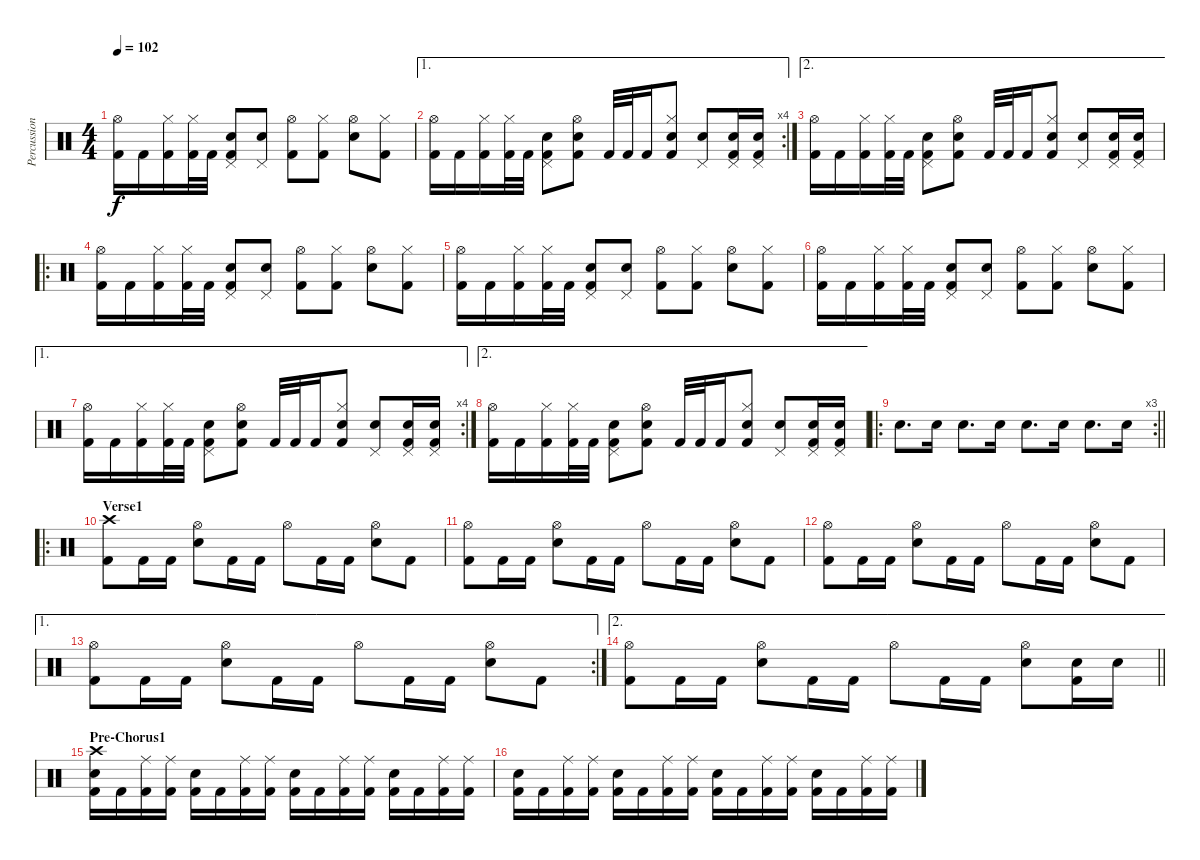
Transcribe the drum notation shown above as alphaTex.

\track ("Percussion" "Percussion") {instrument percussion}
\staff {score}
\articulation defaults
\ts (4 4)
\tempo 102
\clef neutral
\ks c
("Hi-Hat (open)" "Kick (hit) 2").16{dy f} "Kick (hit) 2".16 ("Hi-Hat (closed)" "Kick (hit) 2").16 ("Hi-Hat (closed)" "Kick (hit) 2").32 "Kick (hit) 2".32 ("Pedal Hi-Hat (hit)" "Snare (hit) 2" "Kick (hit) 2").8 ("Pedal Hi-Hat (hit)" "Snare (hit) 2").8 ("Hi-Hat (open)" "Kick (hit) 2").8 ("Hi-Hat (closed)" "Kick (hit) 2").8 ("Hi-Hat (open)" "Snare (hit) 2").8 ("Hi-Hat (closed)" "Kick (hit) 2").8 |
\ae 1
\rc 4
("Hi-Hat (open)" "Kick (hit) 2").16 "Kick (hit) 2".16 ("Hi-Hat (closed)" "Kick (hit) 2").16 ("Hi-Hat (closed)" "Kick (hit) 2").32 "Kick (hit) 2".32 ("Pedal Hi-Hat (hit)" "Snare (hit) 2" "Kick (hit) 2").8 ("Hi-Hat (open)" "Snare (hit) 2" "Kick (hit) 2").8 "Kick (hit) 2".32 "Kick (hit) 2".32 "Kick (hit) 2".16 ("Hi-Hat (closed)" "Snare (hit) 2" "Kick (hit) 2").8 ("Pedal Hi-Hat (hit)" "Snare (hit) 2").8 ("Pedal Hi-Hat (hit)" "Snare (hit) 2" "Kick (hit) 2").16 ("Pedal Hi-Hat (hit)" "Snare (hit) 2" "Kick (hit) 2").16 |
\ae 2
("Hi-Hat (open)" "Kick (hit) 2").16 "Kick (hit) 2".16 ("Hi-Hat (closed)" "Kick (hit) 2").16 ("Hi-Hat (closed)" "Kick (hit) 2").32 "Kick (hit) 2".32 ("Pedal Hi-Hat (hit)" "Snare (hit) 2" "Kick (hit) 2").8 ("Hi-Hat (open)" "Snare (hit) 2" "Kick (hit) 2").8 "Kick (hit) 2".32 "Kick (hit) 2".32 "Kick (hit) 2".16 ("Hi-Hat (closed)" "Snare (hit) 2" "Kick (hit) 2").8 ("Pedal Hi-Hat (hit)" "Snare (hit) 2").8 ("Pedal Hi-Hat (hit)" "Snare (hit) 2" "Kick (hit) 2").16 ("Pedal Hi-Hat (hit)" "Snare (hit) 2" "Kick (hit) 2").16 |
\ro
("Hi-Hat (open)" "Kick (hit) 2").16 "Kick (hit) 2".16 ("Hi-Hat (closed)" "Kick (hit) 2").16 ("Hi-Hat (closed)" "Kick (hit) 2").32 "Kick (hit) 2".32 ("Pedal Hi-Hat (hit)" "Snare (hit) 2" "Kick (hit) 2").8 ("Pedal Hi-Hat (hit)" "Snare (hit) 2").8 ("Hi-Hat (open)" "Kick (hit) 2").8 ("Hi-Hat (closed)" "Kick (hit) 2").8 ("Hi-Hat (open)" "Snare (hit) 2").8 ("Hi-Hat (closed)" "Kick (hit) 2").8 |
("Hi-Hat (open)" "Kick (hit) 2").16 "Kick (hit) 2".16 ("Hi-Hat (closed)" "Kick (hit) 2").16 ("Hi-Hat (closed)" "Kick (hit) 2").32 "Kick (hit) 2".32 ("Pedal Hi-Hat (hit)" "Snare (hit) 2" "Kick (hit) 2").8 ("Pedal Hi-Hat (hit)" "Snare (hit) 2").8 ("Hi-Hat (open)" "Kick (hit) 2").8 ("Hi-Hat (closed)" "Kick (hit) 2").8 ("Hi-Hat (open)" "Snare (hit) 2").8 ("Hi-Hat (closed)" "Kick (hit) 2").8 |
("Hi-Hat (open)" "Kick (hit) 2").16 "Kick (hit) 2".16 ("Hi-Hat (closed)" "Kick (hit) 2").16 ("Hi-Hat (closed)" "Kick (hit) 2").32 "Kick (hit) 2".32 ("Pedal Hi-Hat (hit)" "Snare (hit) 2" "Kick (hit) 2").8 ("Pedal Hi-Hat (hit)" "Snare (hit) 2").8 ("Hi-Hat (open)" "Kick (hit) 2").8 ("Hi-Hat (closed)" "Kick (hit) 2").8 ("Hi-Hat (open)" "Snare (hit) 2").8 ("Hi-Hat (closed)" "Kick (hit) 2").8 |
\ae 1
\rc 4
("Hi-Hat (open)" "Kick (hit) 2").16 "Kick (hit) 2".16 ("Hi-Hat (closed)" "Kick (hit) 2").16 ("Hi-Hat (closed)" "Kick (hit) 2").32 "Kick (hit) 2".32 ("Pedal Hi-Hat (hit)" "Snare (hit) 2" "Kick (hit) 2").8 ("Hi-Hat (open)" "Snare (hit) 2" "Kick (hit) 2").8 "Kick (hit) 2".32 "Kick (hit) 2".32 "Kick (hit) 2".16 ("Hi-Hat (closed)" "Snare (hit) 2" "Kick (hit) 2").8 ("Pedal Hi-Hat (hit)" "Snare (hit) 2").8 ("Pedal Hi-Hat (hit)" "Snare (hit) 2" "Kick (hit) 2").16 ("Pedal Hi-Hat (hit)" "Snare (hit) 2" "Kick (hit) 2").16 |
\ae 2
("Hi-Hat (open)" "Kick (hit) 2").16 "Kick (hit) 2".16 ("Hi-Hat (closed)" "Kick (hit) 2").16 ("Hi-Hat (closed)" "Kick (hit) 2").32 "Kick (hit) 2".32 ("Pedal Hi-Hat (hit)" "Snare (hit) 2" "Kick (hit) 2").8 ("Hi-Hat (open)" "Snare (hit) 2" "Kick (hit) 2").8 "Kick (hit) 2".32 "Kick (hit) 2".32 "Kick (hit) 2".16 ("Hi-Hat (closed)" "Snare (hit) 2" "Kick (hit) 2").8 ("Pedal Hi-Hat (hit)" "Snare (hit) 2").8 ("Pedal Hi-Hat (hit)" "Snare (hit) 2" "Kick (hit) 2").16 ("Pedal Hi-Hat (hit)" "Snare (hit) 2" "Kick (hit) 2").16 |
\ro
\rc 3
\barLineRight lightlight "Snare (hit) 2".8{d} "Snare (hit) 2".16 "Snare (hit) 2".8{d} "Snare (hit) 2".16 "Snare (hit) 2".8{d} "Snare (hit) 2".16 "Snare (hit) 2".8{d} "Snare (hit) 2".16
|
\ro
\section ("" "Verse1")
("Crash high (hit)" "Kick (hit) 2").8 "Kick (hit) 2".16 "Kick (hit) 2".16 ("Hi-Hat (open)" "Snare (hit) 2").8 "Kick (hit) 2".16 "Kick (hit) 2".16 "Hi-Hat (open)".8 "Kick (hit) 2".16 "Kick (hit) 2".16 ("Hi-Hat (open)" "Snare (hit) 2").8 "Kick (hit) 2".8 |
("Hi-Hat (open)" "Kick (hit) 2").8 "Kick (hit) 2".16 "Kick (hit) 2".16 ("Hi-Hat (open)" "Snare (hit) 2").8 "Kick (hit) 2".16 "Kick (hit) 2".16 "Hi-Hat (open)".8 "Kick (hit) 2".16 "Kick (hit) 2".16 ("Hi-Hat (open)" "Snare (hit) 2").8 "Kick (hit) 2".8 |
("Hi-Hat (open)" "Kick (hit) 2").8 "Kick (hit) 2".16 "Kick (hit) 2".16 ("Hi-Hat (open)" "Snare (hit) 2").8 "Kick (hit) 2".16 "Kick (hit) 2".16 "Hi-Hat (open)".8 "Kick (hit) 2".16 "Kick (hit) 2".16 ("Hi-Hat (open)" "Snare (hit) 2").8 "Kick (hit) 2".8 |
\ae 1
\rc 2
("Hi-Hat (open)" "Kick (hit) 2").8 "Kick (hit) 2".16 "Kick (hit) 2".16 ("Hi-Hat (open)" "Snare (hit) 2").8 "Kick (hit) 2".16 "Kick (hit) 2".16 "Hi-Hat (open)".8 "Kick (hit) 2".16 "Kick (hit) 2".16 ("Hi-Hat (open)" "Snare (hit) 2").8 "Kick (hit) 2".8 |
\ae 2
\barLineRight lightlight
("Hi-Hat (open)" "Kick (hit) 2").8 "Kick (hit) 2".16 "Kick (hit) 2".16 ("Hi-Hat (open)" "Snare (hit) 2").8 "Kick (hit) 2".16 "Kick (hit) 2".16 "Hi-Hat (open)".8 "Kick (hit) 2".16 "Kick (hit) 2".16 ("Hi-Hat (open)" "Snare (hit) 2").8 ("Snare (hit) 2" "Kick (hit) 2").16 "Snare (hit) 2".16 |
\section ("" "Pre-Chorus1")
("Crash high (hit)" "Snare (hit) 2" "Kick (hit) 2").16 "Kick (hit) 2".16 ("Ride (middle)" "Kick (hit) 2").16 ("Ride (middle)" "Kick (hit) 2").16 ("Snare (hit) 2" "Kick (hit) 2").16 "Kick (hit) 2".16 ("Ride (middle)" "Kick (hit) 2").16 ("Ride (middle)" "Kick (hit) 2").16 ("Snare (hit) 2" "Kick (hit) 2").16 "Kick (hit) 2".16 ("Ride (middle)" "Kick (hit) 2").16 ("Ride (middle)" "Kick (hit) 2").16 ("Snare (hit) 2" "Kick (hit) 2").16 "Kick (hit) 2".16 ("Ride (middle)" "Kick (hit) 2").16 ("Ride (middle)" "Kick (hit) 2").16 |
("Snare (hit) 2" "Kick (hit) 2").16 "Kick (hit) 2".16 ("Ride (middle)" "Kick (hit) 2").16 ("Ride (middle)" "Kick (hit) 2").16 ("Snare (hit) 2" "Kick (hit) 2").16 "Kick (hit) 2".16 ("Ride (middle)" "Kick (hit) 2").16 ("Ride (middle)" "Kick (hit) 2").16 ("Snare (hit) 2" "Kick (hit) 2").16 "Kick (hit) 2".16 ("Ride (middle)" "Kick (hit) 2").16 ("Ride (middle)" "Kick (hit) 2").16 ("Snare (hit) 2" "Kick (hit) 2").16 "Kick (hit) 2".16 ("Ride (middle)" "Kick (hit) 2").16 ("Ride (middle)" "Kick (hit) 2").16
